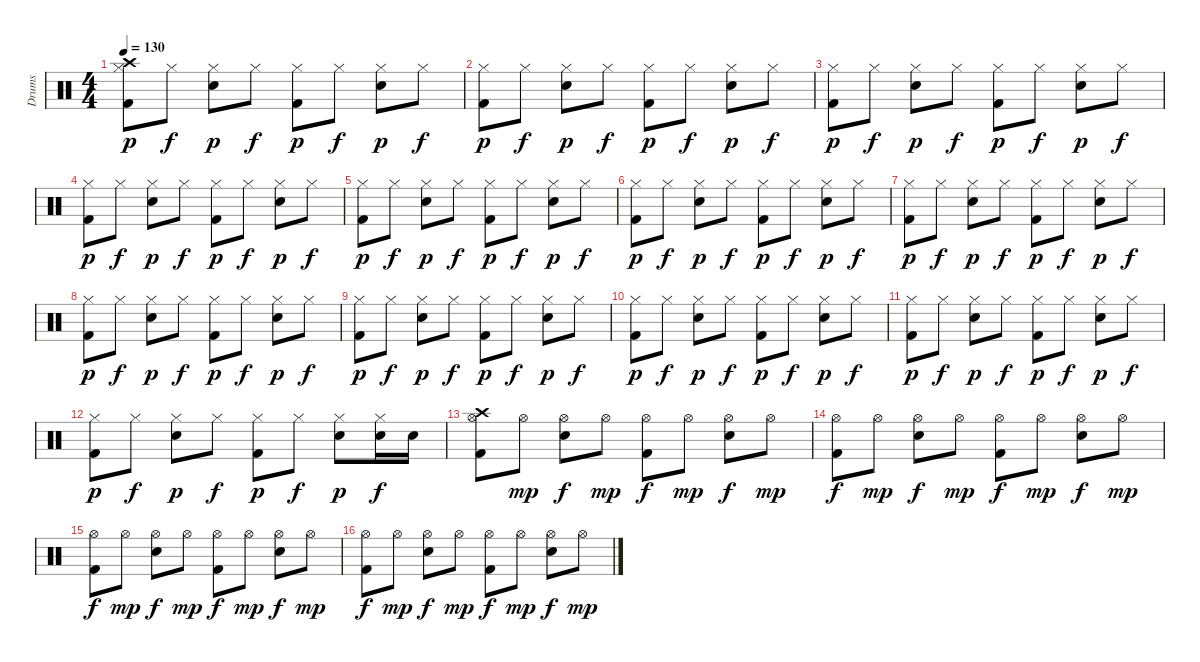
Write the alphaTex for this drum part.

\track ("Drums" "Drums") {instrument percussion}
\staff {score}
\articulation defaults
\ts (4 4)
\tempo 130
\clef neutral
\ks c
("Crash high (hit)" "Hi-Hat (closed)" "Kick (hit) 2").8{dy p} "Hi-Hat (closed)".8{dy f} ("Hi-Hat (closed)" "Electric Snare (hit)").8{dy p} "Hi-Hat (closed)".8{dy f} ("Hi-Hat (closed)" "Kick (hit) 2").8{dy p} "Hi-Hat (closed)".8{dy f} ("Hi-Hat (closed)" "Electric Snare (hit)").8{dy p} "Hi-Hat (closed)".8{dy f} |
("Hi-Hat (closed)" "Kick (hit) 2").8{dy p} "Hi-Hat (closed)".8{dy f} ("Hi-Hat (closed)" "Electric Snare (hit)").8{dy p} "Hi-Hat (closed)".8{dy f} ("Hi-Hat (closed)" "Kick (hit) 2").8{dy p} "Hi-Hat (closed)".8{dy f} ("Hi-Hat (closed)" "Electric Snare (hit)").8{dy p} "Hi-Hat (closed)".8{dy f} |
("Hi-Hat (closed)" "Kick (hit) 2").8{dy p} "Hi-Hat (closed)".8{dy f} ("Hi-Hat (closed)" "Electric Snare (hit)").8{dy p} "Hi-Hat (closed)".8{dy f} ("Hi-Hat (closed)" "Kick (hit) 2").8{dy p} "Hi-Hat (closed)".8{dy f} ("Hi-Hat (closed)" "Electric Snare (hit)").8{dy p} "Hi-Hat (closed)".8{dy f} |
("Hi-Hat (closed)" "Kick (hit) 2").8{dy p} "Hi-Hat (closed)".8{dy f} ("Hi-Hat (closed)" "Electric Snare (hit)").8{dy p} "Hi-Hat (closed)".8{dy f} ("Hi-Hat (closed)" "Kick (hit) 2").8{dy p} "Hi-Hat (closed)".8{dy f} ("Hi-Hat (closed)" "Electric Snare (hit)").8{dy p} "Hi-Hat (closed)".8{dy f} |
("Hi-Hat (closed)" "Kick (hit) 2").8{dy p} "Hi-Hat (closed)".8{dy f} ("Hi-Hat (closed)" "Electric Snare (hit)").8{dy p} "Hi-Hat (closed)".8{dy f} ("Hi-Hat (closed)" "Kick (hit) 2").8{dy p} "Hi-Hat (closed)".8{dy f} ("Hi-Hat (closed)" "Electric Snare (hit)").8{dy p} "Hi-Hat (closed)".8{dy f} |
("Hi-Hat (closed)" "Kick (hit) 2").8{dy p} "Hi-Hat (closed)".8{dy f} ("Hi-Hat (closed)" "Electric Snare (hit)").8{dy p} "Hi-Hat (closed)".8{dy f} ("Hi-Hat (closed)" "Kick (hit) 2").8{dy p} "Hi-Hat (closed)".8{dy f} ("Hi-Hat (closed)" "Electric Snare (hit)").8{dy p} "Hi-Hat (closed)".8{dy f} |
("Hi-Hat (closed)" "Kick (hit) 2").8{dy p} "Hi-Hat (closed)".8{dy f} ("Hi-Hat (closed)" "Electric Snare (hit)").8{dy p} "Hi-Hat (closed)".8{dy f} ("Hi-Hat (closed)" "Kick (hit) 2").8{dy p} "Hi-Hat (closed)".8{dy f} ("Hi-Hat (closed)" "Electric Snare (hit)").8{dy p} "Hi-Hat (closed)".8{dy f} |
("Hi-Hat (closed)" "Kick (hit) 2").8{dy p} "Hi-Hat (closed)".8{dy f} ("Hi-Hat (closed)" "Electric Snare (hit)").8{dy p} "Hi-Hat (closed)".8{dy f} ("Hi-Hat (closed)" "Kick (hit) 2").8{dy p} "Hi-Hat (closed)".8{dy f} ("Hi-Hat (closed)" "Electric Snare (hit)").8{dy p} "Hi-Hat (closed)".8{dy f} |
("Hi-Hat (closed)" "Kick (hit) 2").8{dy p} "Hi-Hat (closed)".8{dy f} ("Hi-Hat (closed)" "Electric Snare (hit)").8{dy p} "Hi-Hat (closed)".8{dy f} ("Hi-Hat (closed)" "Kick (hit) 2").8{dy p} "Hi-Hat (closed)".8{dy f} ("Hi-Hat (closed)" "Electric Snare (hit)").8{dy p} "Hi-Hat (closed)".8{dy f} |
("Hi-Hat (closed)" "Kick (hit) 2").8{dy p} "Hi-Hat (closed)".8{dy f} ("Hi-Hat (closed)" "Electric Snare (hit)").8{dy p} "Hi-Hat (closed)".8{dy f} ("Hi-Hat (closed)" "Kick (hit) 2").8{dy p} "Hi-Hat (closed)".8{dy f} ("Hi-Hat (closed)" "Electric Snare (hit)").8{dy p} "Hi-Hat (closed)".8{dy f} |
("Hi-Hat (closed)" "Kick (hit) 2").8{dy p} "Hi-Hat (closed)".8{dy f} ("Hi-Hat (closed)" "Electric Snare (hit)").8{dy p} "Hi-Hat (closed)".8{dy f} ("Hi-Hat (closed)" "Kick (hit) 2").8{dy p} "Hi-Hat (closed)".8{dy f} ("Hi-Hat (closed)" "Electric Snare (hit)").8{dy p} "Hi-Hat (closed)".8{dy f} |
("Hi-Hat (closed)" "Kick (hit) 2").8{dy p} "Hi-Hat (closed)".8{dy f} ("Hi-Hat (closed)" "Electric Snare (hit)").8{dy p} "Hi-Hat (closed)".8{dy f} ("Hi-Hat (closed)" "Kick (hit) 2").8{dy p} "Hi-Hat (closed)".8{dy f} ("Hi-Hat (closed)" "Electric Snare (hit)").8{dy p} ("Hi-Hat (closed)" "Electric Snare (hit)").16{dy f} "Electric Snare (hit)".16 |
("Crash high (hit)" "Hi-Hat (open)" "Kick (hit) 2").8 "Hi-Hat (open)".8{dy mp} ("Hi-Hat (open)" "Electric Snare (hit)").8{dy f} "Hi-Hat (open)".8{dy mp} ("Hi-Hat (open)" "Kick (hit) 2").8{dy f} "Hi-Hat (open)".8{dy mp} ("Hi-Hat (open)" "Electric Snare (hit)").8{dy f} "Hi-Hat (open)".8{dy mp} |
("Hi-Hat (open)" "Kick (hit) 2").8{dy f} "Hi-Hat (open)".8{dy mp} ("Hi-Hat (open)" "Electric Snare (hit)").8{dy f} "Hi-Hat (open)".8{dy mp} ("Hi-Hat (open)" "Kick (hit) 2").8{dy f} "Hi-Hat (open)".8{dy mp} ("Hi-Hat (open)" "Electric Snare (hit)").8{dy f} "Hi-Hat (open)".8{dy mp} |
("Hi-Hat (open)" "Kick (hit) 2").8{dy f} "Hi-Hat (open)".8{dy mp} ("Hi-Hat (open)" "Electric Snare (hit)").8{dy f} "Hi-Hat (open)".8{dy mp} ("Hi-Hat (open)" "Kick (hit) 2").8{dy f} "Hi-Hat (open)".8{dy mp} ("Hi-Hat (open)" "Electric Snare (hit)").8{dy f} "Hi-Hat (open)".8{dy mp} |
("Hi-Hat (open)" "Kick (hit) 2").8{dy f} "Hi-Hat (open)".8{dy mp} ("Hi-Hat (open)" "Electric Snare (hit)").8{dy f} "Hi-Hat (open)".8{dy mp} ("Hi-Hat (open)" "Kick (hit) 2").8{dy f} "Hi-Hat (open)".8{dy mp} ("Hi-Hat (open)" "Electric Snare (hit)").8{dy f} "Hi-Hat (open)".8{dy mp}
